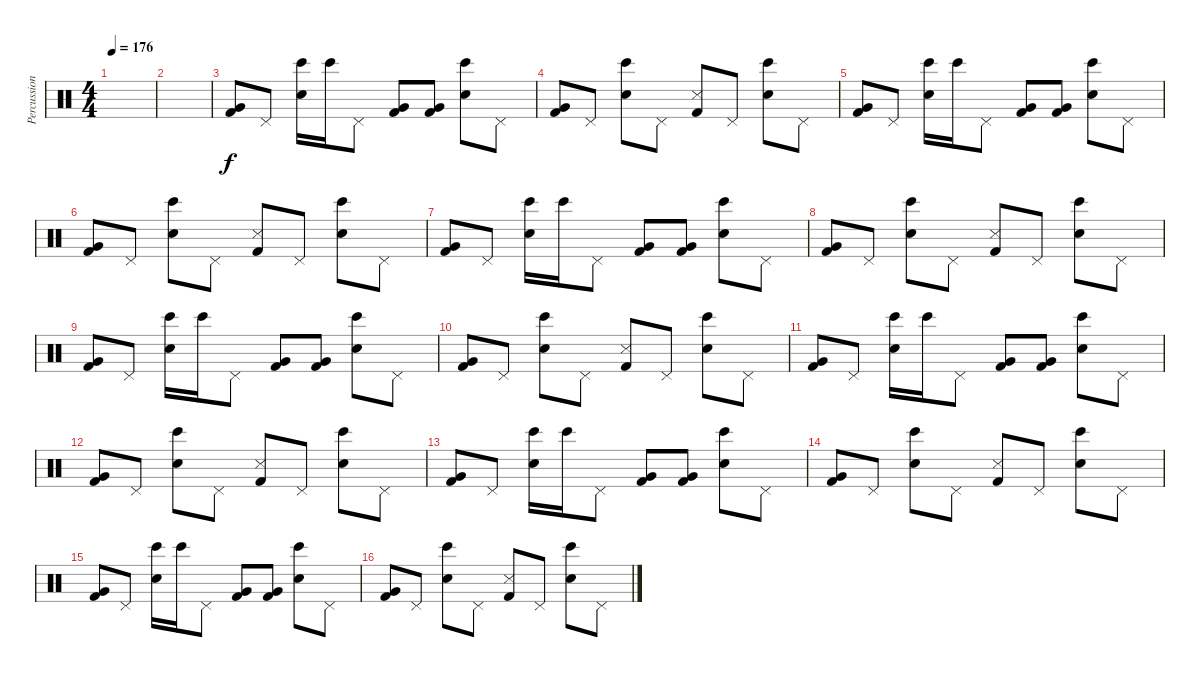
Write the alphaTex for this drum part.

\track ("Percussions" "Percussion") {instrument percussion}
\staff {score}
\articulation defaults
\ts (4 4)
\tempo 176
\clef neutral
\ks c
|
|
("Kick (hit) 2" "Very Low Tom (hit)").8 "Pedal Hi-Hat (hit)".8 ("Snare (hit) 2" "Bongo High (hit)").16 "Bongo High (hit)".16 "Pedal Hi-Hat (hit)".8 ("Kick (hit) 2" "Very Low Tom (hit)").8 ("Kick (hit) 2" "Very Low Tom (hit)").8 ("Snare (hit) 2" "Bongo High (hit)").8 "Pedal Hi-Hat (hit)".8 |
("Kick (hit) 2" "Very Low Tom (hit)").8 "Pedal Hi-Hat (hit)".8 ("Snare (hit) 2" "Bongo High (hit)").8 "Pedal Hi-Hat (hit)".8 ("Kick (hit) 2" "Snare (side stick) 3").8 "Pedal Hi-Hat (hit)".8 ("Snare (hit) 2" "Bongo High (hit)").8 "Pedal Hi-Hat (hit)".8 |
("Kick (hit) 2" "Very Low Tom (hit)").8 "Pedal Hi-Hat (hit)".8 ("Snare (hit) 2" "Bongo High (hit)").16 "Bongo High (hit)".16 "Pedal Hi-Hat (hit)".8 ("Kick (hit) 2" "Very Low Tom (hit)").8 ("Kick (hit) 2" "Very Low Tom (hit)").8 ("Snare (hit) 2" "Bongo High (hit)").8 "Pedal Hi-Hat (hit)".8 |
("Kick (hit) 2" "Very Low Tom (hit)").8 "Pedal Hi-Hat (hit)".8 ("Snare (hit) 2" "Bongo High (hit)").8 "Pedal Hi-Hat (hit)".8 ("Kick (hit) 2" "Snare (side stick) 3").8 "Pedal Hi-Hat (hit)".8 ("Snare (hit) 2" "Bongo High (hit)").8 "Pedal Hi-Hat (hit)".8 |
("Kick (hit) 2" "Very Low Tom (hit)").8 "Pedal Hi-Hat (hit)".8 ("Snare (hit) 2" "Bongo High (hit)").16 "Bongo High (hit)".16 "Pedal Hi-Hat (hit)".8 ("Kick (hit) 2" "Very Low Tom (hit)").8 ("Kick (hit) 2" "Very Low Tom (hit)").8 ("Snare (hit) 2" "Bongo High (hit)").8 "Pedal Hi-Hat (hit)".8 |
("Kick (hit) 2" "Very Low Tom (hit)").8 "Pedal Hi-Hat (hit)".8 ("Snare (hit) 2" "Bongo High (hit)").8 "Pedal Hi-Hat (hit)".8 ("Kick (hit) 2" "Snare (side stick) 3").8 "Pedal Hi-Hat (hit)".8 ("Snare (hit) 2" "Bongo High (hit)").8 "Pedal Hi-Hat (hit)".8 |
("Kick (hit) 2" "Very Low Tom (hit)").8 "Pedal Hi-Hat (hit)".8 ("Snare (hit) 2" "Bongo High (hit)").16 "Bongo High (hit)".16 "Pedal Hi-Hat (hit)".8 ("Kick (hit) 2" "Very Low Tom (hit)").8 ("Kick (hit) 2" "Very Low Tom (hit)").8 ("Snare (hit) 2" "Bongo High (hit)").8 "Pedal Hi-Hat (hit)".8 |
("Kick (hit) 2" "Very Low Tom (hit)").8 "Pedal Hi-Hat (hit)".8 ("Snare (hit) 2" "Bongo High (hit)").8 "Pedal Hi-Hat (hit)".8 ("Kick (hit) 2" "Snare (side stick) 3").8 "Pedal Hi-Hat (hit)".8 ("Snare (hit) 2" "Bongo High (hit)").8 "Pedal Hi-Hat (hit)".8 |
("Kick (hit) 2" "Very Low Tom (hit)").8 "Pedal Hi-Hat (hit)".8 ("Snare (hit) 2" "Bongo High (hit)").16 "Bongo High (hit)".16 "Pedal Hi-Hat (hit)".8 ("Kick (hit) 2" "Very Low Tom (hit)").8 ("Kick (hit) 2" "Very Low Tom (hit)").8 ("Snare (hit) 2" "Bongo High (hit)").8 "Pedal Hi-Hat (hit)".8 |
("Kick (hit) 2" "Very Low Tom (hit)").8 "Pedal Hi-Hat (hit)".8 ("Snare (hit) 2" "Bongo High (hit)").8 "Pedal Hi-Hat (hit)".8 ("Kick (hit) 2" "Snare (side stick) 3").8 "Pedal Hi-Hat (hit)".8 ("Snare (hit) 2" "Bongo High (hit)").8 "Pedal Hi-Hat (hit)".8 |
("Kick (hit) 2" "Very Low Tom (hit)").8 "Pedal Hi-Hat (hit)".8 ("Snare (hit) 2" "Bongo High (hit)").16 "Bongo High (hit)".16 "Pedal Hi-Hat (hit)".8 ("Kick (hit) 2" "Very Low Tom (hit)").8 ("Kick (hit) 2" "Very Low Tom (hit)").8 ("Snare (hit) 2" "Bongo High (hit)").8 "Pedal Hi-Hat (hit)".8 |
("Kick (hit) 2" "Very Low Tom (hit)").8 "Pedal Hi-Hat (hit)".8 ("Snare (hit) 2" "Bongo High (hit)").8 "Pedal Hi-Hat (hit)".8 ("Kick (hit) 2" "Snare (side stick) 3").8 "Pedal Hi-Hat (hit)".8 ("Snare (hit) 2" "Bongo High (hit)").8 "Pedal Hi-Hat (hit)".8 |
("Kick (hit) 2" "Very Low Tom (hit)").8 "Pedal Hi-Hat (hit)".8 ("Snare (hit) 2" "Bongo High (hit)").16 "Bongo High (hit)".16 "Pedal Hi-Hat (hit)".8 ("Kick (hit) 2" "Very Low Tom (hit)").8 ("Kick (hit) 2" "Very Low Tom (hit)").8 ("Snare (hit) 2" "Bongo High (hit)").8 "Pedal Hi-Hat (hit)".8 |
("Kick (hit) 2" "Very Low Tom (hit)").8 "Pedal Hi-Hat (hit)".8 ("Snare (hit) 2" "Bongo High (hit)").8 "Pedal Hi-Hat (hit)".8 ("Kick (hit) 2" "Snare (side stick) 3").8 "Pedal Hi-Hat (hit)".8 ("Snare (hit) 2" "Bongo High (hit)").8 "Pedal Hi-Hat (hit)".8
